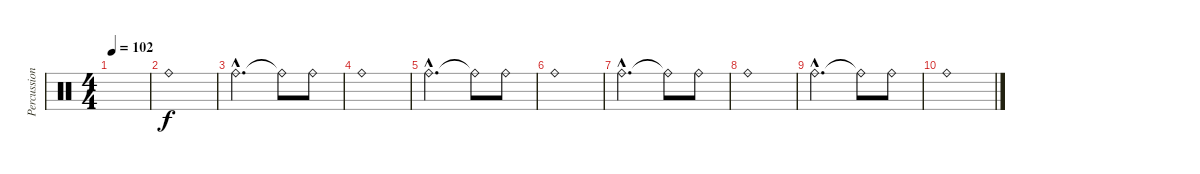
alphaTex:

\track ("Percussion" "Percussion") {instrument percussion}
\staff {score}
\articulation defaults
\ts (4 4)
\tempo 102
\clef neutral
\ks c
|
"Ride (bell)".1 |
"Ride (bell)"{hac}.2{d} "Ride (bell)"{t}.8 "Ride (bell)".8 |
"Ride (bell)".1 |
"Ride (bell)"{hac}.2{d} "Ride (bell)"{t}.8 "Ride (bell)".8 |
"Ride (bell)".1 |
"Ride (bell)"{hac}.2{d} "Ride (bell)"{t}.8 "Ride (bell)".8 |
"Ride (bell)".1 |
"Ride (bell)"{hac}.2{d} "Ride (bell)"{t}.8 "Ride (bell)".8 |
"Ride (bell)".1
